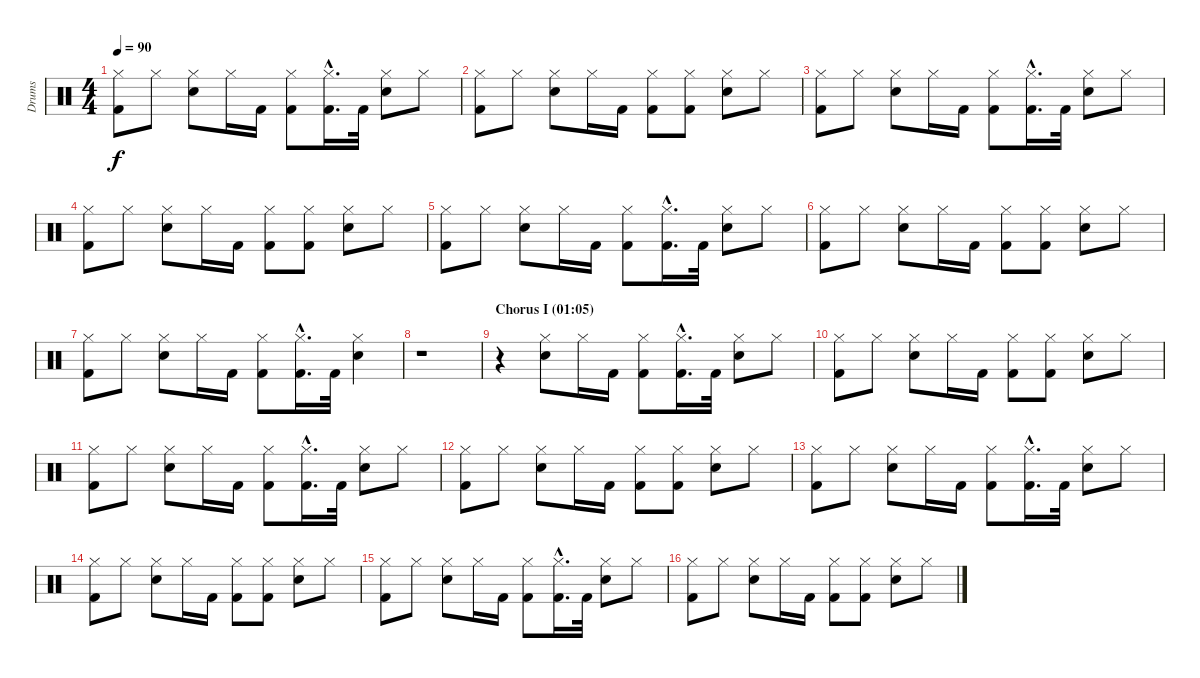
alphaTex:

\track ("Drums" "Drums") {instrument percussion}
\staff {score}
\articulation defaults
\ts (4 4)
\tempo 90
\clef neutral
\ks c
("Hi-Hat (closed)" "Kick (hit) 2").8{dy f} "Hi-Hat (closed)".8 ("Hi-Hat (closed)" "Electric Snare (hit)").8 "Hi-Hat (closed)".16 "Kick (hit) 2".16 ("Hi-Hat (closed)" "Kick (hit) 2").8 ("Hi-Hat (closed)"{hac} "Kick (hit) 2"{hac}).16{d} "Kick (hit) 2".32 ("Hi-Hat (closed)" "Electric Snare (hit)").8 "Hi-Hat (closed)".8 |
("Hi-Hat (closed)" "Kick (hit) 2").8 "Hi-Hat (closed)".8 ("Hi-Hat (closed)" "Electric Snare (hit)").8 "Hi-Hat (closed)".16 "Kick (hit) 2".16 ("Hi-Hat (closed)" "Kick (hit) 2").8 ("Hi-Hat (closed)" "Kick (hit) 2").8 ("Hi-Hat (closed)" "Electric Snare (hit)").8 "Hi-Hat (closed)".8 |
("Hi-Hat (closed)" "Kick (hit) 2").8 "Hi-Hat (closed)".8 ("Hi-Hat (closed)" "Electric Snare (hit)").8 "Hi-Hat (closed)".16 "Kick (hit) 2".16 ("Hi-Hat (closed)" "Kick (hit) 2").8 ("Hi-Hat (closed)"{hac} "Kick (hit) 2"{hac}).16{d} "Kick (hit) 2".32 ("Hi-Hat (closed)" "Electric Snare (hit)").8 "Hi-Hat (closed)".8 |
("Hi-Hat (closed)" "Kick (hit) 2").8 "Hi-Hat (closed)".8 ("Hi-Hat (closed)" "Electric Snare (hit)").8 "Hi-Hat (closed)".16 "Kick (hit) 2".16 ("Hi-Hat (closed)" "Kick (hit) 2").8 ("Hi-Hat (closed)" "Kick (hit) 2").8 ("Hi-Hat (closed)" "Electric Snare (hit)").8 "Hi-Hat (closed)".8 |
("Hi-Hat (closed)" "Kick (hit) 2").8 "Hi-Hat (closed)".8 ("Hi-Hat (closed)" "Electric Snare (hit)").8 "Hi-Hat (closed)".16 "Kick (hit) 2".16 ("Hi-Hat (closed)" "Kick (hit) 2").8 ("Hi-Hat (closed)"{hac} "Kick (hit) 2"{hac}).16{d} "Kick (hit) 2".32 ("Hi-Hat (closed)" "Electric Snare (hit)").8 "Hi-Hat (closed)".8 |
("Hi-Hat (closed)" "Kick (hit) 2").8 "Hi-Hat (closed)".8 ("Hi-Hat (closed)" "Electric Snare (hit)").8 "Hi-Hat (closed)".16 "Kick (hit) 2".16 ("Hi-Hat (closed)" "Kick (hit) 2").8 ("Hi-Hat (closed)" "Kick (hit) 2").8 ("Hi-Hat (closed)" "Electric Snare (hit)").8 "Hi-Hat (closed)".8 |
("Hi-Hat (closed)" "Kick (hit) 2").8 "Hi-Hat (closed)".8 ("Hi-Hat (closed)" "Electric Snare (hit)").8 "Hi-Hat (closed)".16 "Kick (hit) 2".16 ("Hi-Hat (closed)" "Kick (hit) 2").8 ("Hi-Hat (closed)"{hac} "Kick (hit) 2"{hac}).16{d} "Kick (hit) 2".32 ("Hi-Hat (closed)" "Electric Snare (hit)").4 |
r.1 |
\section ("" "Chorus I (01:05)")
r.4 ("Hi-Hat (closed)" "Electric Snare (hit)").8 "Hi-Hat (closed)".16 "Kick (hit) 2".16 ("Hi-Hat (closed)" "Kick (hit) 2").8 ("Hi-Hat (closed)"{hac} "Kick (hit) 2"{hac}).16{d} "Kick (hit) 2".32 ("Hi-Hat (closed)" "Electric Snare (hit)").8 "Hi-Hat (closed)".8 |
("Hi-Hat (closed)" "Kick (hit) 2").8 "Hi-Hat (closed)".8 ("Hi-Hat (closed)" "Electric Snare (hit)").8 "Hi-Hat (closed)".16 "Kick (hit) 2".16 ("Hi-Hat (closed)" "Kick (hit) 2").8 ("Hi-Hat (closed)" "Kick (hit) 2").8 ("Hi-Hat (closed)" "Electric Snare (hit)").8 "Hi-Hat (closed)".8 |
("Hi-Hat (closed)" "Kick (hit) 2").8 "Hi-Hat (closed)".8 ("Hi-Hat (closed)" "Electric Snare (hit)").8 "Hi-Hat (closed)".16 "Kick (hit) 2".16 ("Hi-Hat (closed)" "Kick (hit) 2").8 ("Hi-Hat (closed)"{hac} "Kick (hit) 2"{hac}).16{d} "Kick (hit) 2".32 ("Hi-Hat (closed)" "Electric Snare (hit)").8 "Hi-Hat (closed)".8 |
("Hi-Hat (closed)" "Kick (hit) 2").8 "Hi-Hat (closed)".8 ("Hi-Hat (closed)" "Electric Snare (hit)").8 "Hi-Hat (closed)".16 "Kick (hit) 2".16 ("Hi-Hat (closed)" "Kick (hit) 2").8 ("Hi-Hat (closed)" "Kick (hit) 2").8 ("Hi-Hat (closed)" "Electric Snare (hit)").8 "Hi-Hat (closed)".8 |
("Hi-Hat (closed)" "Kick (hit) 2").8 "Hi-Hat (closed)".8 ("Hi-Hat (closed)" "Electric Snare (hit)").8 "Hi-Hat (closed)".16 "Kick (hit) 2".16 ("Hi-Hat (closed)" "Kick (hit) 2").8 ("Hi-Hat (closed)"{hac} "Kick (hit) 2"{hac}).16{d} "Kick (hit) 2".32 ("Hi-Hat (closed)" "Electric Snare (hit)").8 "Hi-Hat (closed)".8 |
("Hi-Hat (closed)" "Kick (hit) 2").8 "Hi-Hat (closed)".8 ("Hi-Hat (closed)" "Electric Snare (hit)").8 "Hi-Hat (closed)".16 "Kick (hit) 2".16 ("Hi-Hat (closed)" "Kick (hit) 2").8 ("Hi-Hat (closed)" "Kick (hit) 2").8 ("Hi-Hat (closed)" "Electric Snare (hit)").8 "Hi-Hat (closed)".8 |
("Hi-Hat (closed)" "Kick (hit) 2").8 "Hi-Hat (closed)".8 ("Hi-Hat (closed)" "Electric Snare (hit)").8 "Hi-Hat (closed)".16 "Kick (hit) 2".16 ("Hi-Hat (closed)" "Kick (hit) 2").8 ("Hi-Hat (closed)"{hac} "Kick (hit) 2"{hac}).16{d} "Kick (hit) 2".32 ("Hi-Hat (closed)" "Electric Snare (hit)").8 "Hi-Hat (closed)".8 |
("Hi-Hat (closed)" "Kick (hit) 2").8 "Hi-Hat (closed)".8 ("Hi-Hat (closed)" "Electric Snare (hit)").8 "Hi-Hat (closed)".16 "Kick (hit) 2".16 ("Hi-Hat (closed)" "Kick (hit) 2").8 ("Hi-Hat (closed)" "Kick (hit) 2").8 ("Hi-Hat (closed)" "Electric Snare (hit)").8 "Hi-Hat (closed)".8
